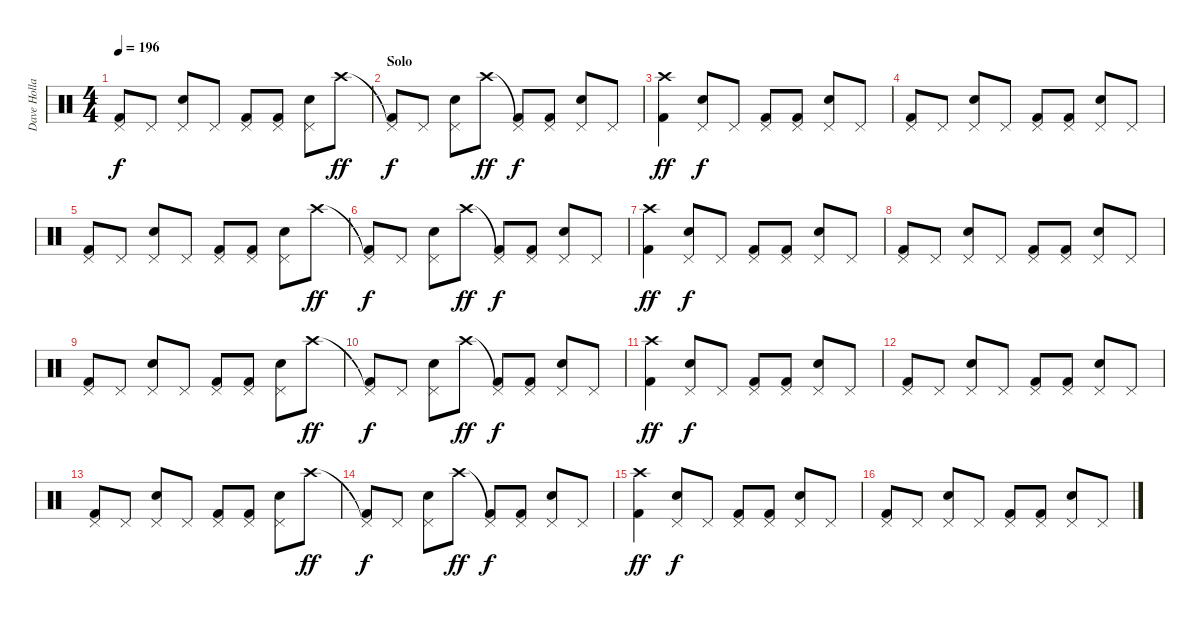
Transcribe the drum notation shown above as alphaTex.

\track ("Dave Holland" "Dave Holla") {instrument percussion}
\staff {score}
\articulation defaults
\ts (4 4)
\tempo 196
\clef neutral
\ks c
("Pedal Hi-Hat (hit)" "Kick (hit) 2").8{dy f} "Pedal Hi-Hat (hit)".8 ("Pedal Hi-Hat (hit)" "Snare (hit) 2").8 "Pedal Hi-Hat (hit)".8 ("Pedal Hi-Hat (hit)" "Kick (hit) 2").8 ("Pedal Hi-Hat (hit)" "Kick (hit) 2").8 ("Pedal Hi-Hat (hit)" "Snare (hit) 2").8 "Crash high (hit)".8{dy ff} |
\section ("" "Solo")
("Pedal Hi-Hat (hit)"{t} "Kick (hit) 2").8{dy f} "Pedal Hi-Hat (hit)".8 ("Pedal Hi-Hat (hit)" "Snare (hit) 2").8 "Crash high (hit)".8{dy ff} ("Pedal Hi-Hat (hit)"{t} "Kick (hit) 2").8{dy f} ("Pedal Hi-Hat (hit)" "Kick (hit) 2").8 ("Pedal Hi-Hat (hit)" "Snare (hit) 2").8 "Pedal Hi-Hat (hit)".8 |
("Crash high (hit)" "Kick (hit) 2").4{dy ff} ("Pedal Hi-Hat (hit)" "Snare (hit) 2").8{dy f} "Pedal Hi-Hat (hit)".8 ("Pedal Hi-Hat (hit)" "Kick (hit) 2").8 ("Pedal Hi-Hat (hit)" "Kick (hit) 2").8 ("Pedal Hi-Hat (hit)" "Snare (hit) 2").8 "Pedal Hi-Hat (hit)".8 |
("Pedal Hi-Hat (hit)" "Kick (hit) 2").8 "Pedal Hi-Hat (hit)".8 ("Pedal Hi-Hat (hit)" "Snare (hit) 2").8 "Pedal Hi-Hat (hit)".8 ("Pedal Hi-Hat (hit)" "Kick (hit) 2").8 ("Pedal Hi-Hat (hit)" "Kick (hit) 2").8 ("Pedal Hi-Hat (hit)" "Snare (hit) 2").8 "Pedal Hi-Hat (hit)".8 |
("Pedal Hi-Hat (hit)" "Kick (hit) 2").8 "Pedal Hi-Hat (hit)".8 ("Pedal Hi-Hat (hit)" "Snare (hit) 2").8 "Pedal Hi-Hat (hit)".8 ("Pedal Hi-Hat (hit)" "Kick (hit) 2").8 ("Pedal Hi-Hat (hit)" "Kick (hit) 2").8 ("Pedal Hi-Hat (hit)" "Snare (hit) 2").8 "Crash high (hit)".8{dy ff} |
("Pedal Hi-Hat (hit)"{t} "Kick (hit) 2").8{dy f} "Pedal Hi-Hat (hit)".8 ("Pedal Hi-Hat (hit)" "Snare (hit) 2").8 "Crash high (hit)".8{dy ff} ("Pedal Hi-Hat (hit)"{t} "Kick (hit) 2").8{dy f} ("Pedal Hi-Hat (hit)" "Kick (hit) 2").8 ("Pedal Hi-Hat (hit)" "Snare (hit) 2").8 "Pedal Hi-Hat (hit)".8 |
("Crash high (hit)" "Kick (hit) 2").4{dy ff} ("Pedal Hi-Hat (hit)" "Snare (hit) 2").8{dy f} "Pedal Hi-Hat (hit)".8 ("Pedal Hi-Hat (hit)" "Kick (hit) 2").8 ("Pedal Hi-Hat (hit)" "Kick (hit) 2").8 ("Pedal Hi-Hat (hit)" "Snare (hit) 2").8 "Pedal Hi-Hat (hit)".8 |
("Pedal Hi-Hat (hit)" "Kick (hit) 2").8 "Pedal Hi-Hat (hit)".8 ("Pedal Hi-Hat (hit)" "Snare (hit) 2").8 "Pedal Hi-Hat (hit)".8 ("Pedal Hi-Hat (hit)" "Kick (hit) 2").8 ("Pedal Hi-Hat (hit)" "Kick (hit) 2").8 ("Pedal Hi-Hat (hit)" "Snare (hit) 2").8 "Pedal Hi-Hat (hit)".8 |
("Pedal Hi-Hat (hit)" "Kick (hit) 2").8 "Pedal Hi-Hat (hit)".8 ("Pedal Hi-Hat (hit)" "Snare (hit) 2").8 "Pedal Hi-Hat (hit)".8 ("Pedal Hi-Hat (hit)" "Kick (hit) 2").8 ("Pedal Hi-Hat (hit)" "Kick (hit) 2").8 ("Pedal Hi-Hat (hit)" "Snare (hit) 2").8 "Crash high (hit)".8{dy ff} |
("Pedal Hi-Hat (hit)"{t} "Kick (hit) 2").8{dy f} "Pedal Hi-Hat (hit)".8 ("Pedal Hi-Hat (hit)" "Snare (hit) 2").8 "Crash high (hit)".8{dy ff} ("Pedal Hi-Hat (hit)"{t} "Kick (hit) 2").8{dy f} ("Pedal Hi-Hat (hit)" "Kick (hit) 2").8 ("Pedal Hi-Hat (hit)" "Snare (hit) 2").8 "Pedal Hi-Hat (hit)".8 |
("Crash high (hit)" "Kick (hit) 2").4{dy ff} ("Pedal Hi-Hat (hit)" "Snare (hit) 2").8{dy f} "Pedal Hi-Hat (hit)".8 ("Pedal Hi-Hat (hit)" "Kick (hit) 2").8 ("Pedal Hi-Hat (hit)" "Kick (hit) 2").8 ("Pedal Hi-Hat (hit)" "Snare (hit) 2").8 "Pedal Hi-Hat (hit)".8 |
("Pedal Hi-Hat (hit)" "Kick (hit) 2").8 "Pedal Hi-Hat (hit)".8 ("Pedal Hi-Hat (hit)" "Snare (hit) 2").8 "Pedal Hi-Hat (hit)".8 ("Pedal Hi-Hat (hit)" "Kick (hit) 2").8 ("Pedal Hi-Hat (hit)" "Kick (hit) 2").8 ("Pedal Hi-Hat (hit)" "Snare (hit) 2").8 "Pedal Hi-Hat (hit)".8 |
("Pedal Hi-Hat (hit)" "Kick (hit) 2").8 "Pedal Hi-Hat (hit)".8 ("Pedal Hi-Hat (hit)" "Snare (hit) 2").8 "Pedal Hi-Hat (hit)".8 ("Pedal Hi-Hat (hit)" "Kick (hit) 2").8 ("Pedal Hi-Hat (hit)" "Kick (hit) 2").8 ("Pedal Hi-Hat (hit)" "Snare (hit) 2").8 "Crash high (hit)".8{dy ff} |
("Pedal Hi-Hat (hit)"{t} "Kick (hit) 2").8{dy f} "Pedal Hi-Hat (hit)".8 ("Pedal Hi-Hat (hit)" "Snare (hit) 2").8 "Crash high (hit)".8{dy ff} ("Pedal Hi-Hat (hit)"{t} "Kick (hit) 2").8{dy f} ("Pedal Hi-Hat (hit)" "Kick (hit) 2").8 ("Pedal Hi-Hat (hit)" "Snare (hit) 2").8 "Pedal Hi-Hat (hit)".8 |
("Crash high (hit)" "Kick (hit) 2").4{dy ff} ("Pedal Hi-Hat (hit)" "Snare (hit) 2").8{dy f} "Pedal Hi-Hat (hit)".8 ("Pedal Hi-Hat (hit)" "Kick (hit) 2").8 ("Pedal Hi-Hat (hit)" "Kick (hit) 2").8 ("Pedal Hi-Hat (hit)" "Snare (hit) 2").8 "Pedal Hi-Hat (hit)".8 |
("Pedal Hi-Hat (hit)" "Kick (hit) 2").8 "Pedal Hi-Hat (hit)".8 ("Pedal Hi-Hat (hit)" "Snare (hit) 2").8 "Pedal Hi-Hat (hit)".8 ("Pedal Hi-Hat (hit)" "Kick (hit) 2").8 ("Pedal Hi-Hat (hit)" "Kick (hit) 2").8 ("Pedal Hi-Hat (hit)" "Snare (hit) 2").8 "Pedal Hi-Hat (hit)".8
